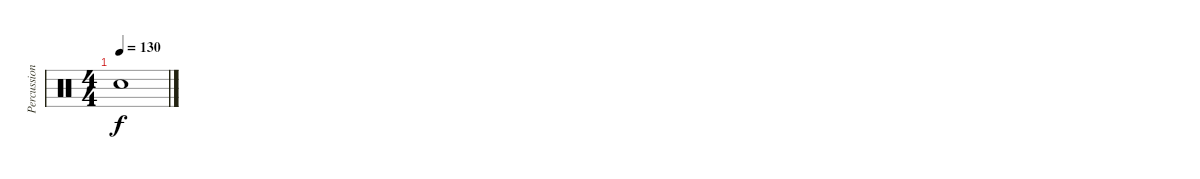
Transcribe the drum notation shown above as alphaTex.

\track ("Percussion 2" "Percussion") {instrument percussion}
\staff {score}
\articulation defaults
\ts (4 4)
\tempo 130
\clef neutral
\ks c "Snare (hit)"{t}.1{dy f}
